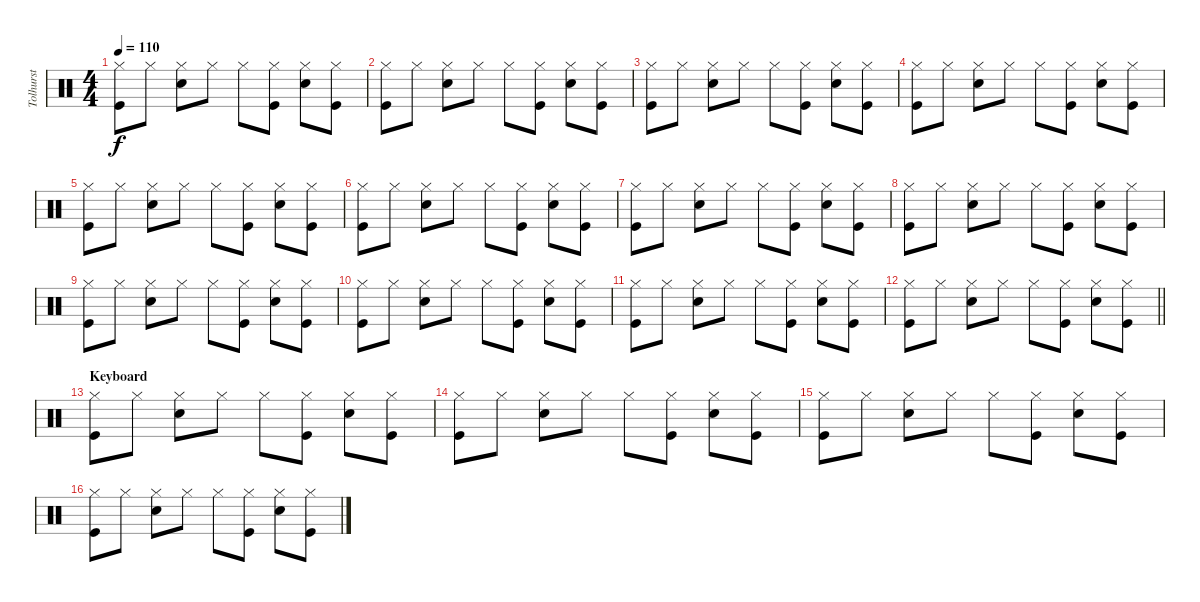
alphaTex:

\track ("Tolhurst" "Tolhurst") {instrument percussion}
\staff {score}
\articulation defaults
\ts (4 4)
\tempo 110
\clef neutral
\ks c
("Hi-Hat (closed)" "Kick (hit)").8{dy f} "Hi-Hat (closed)".8 ("Hi-Hat (closed)" "Electric Snare (hit)").8 "Hi-Hat (closed)".8 "Hi-Hat (closed)".8 ("Hi-Hat (closed)" "Kick (hit)").8 ("Hi-Hat (closed)" "Electric Snare (hit)").8 ("Hi-Hat (closed)" "Kick (hit)").8 |
("Hi-Hat (closed)" "Kick (hit)").8 "Hi-Hat (closed)".8 ("Hi-Hat (closed)" "Electric Snare (hit)").8 "Hi-Hat (closed)".8 "Hi-Hat (closed)".8 ("Hi-Hat (closed)" "Kick (hit)").8 ("Hi-Hat (closed)" "Electric Snare (hit)").8 ("Hi-Hat (closed)" "Kick (hit)").8 |
("Hi-Hat (closed)" "Kick (hit)").8 "Hi-Hat (closed)".8 ("Hi-Hat (closed)" "Electric Snare (hit)").8 "Hi-Hat (closed)".8 "Hi-Hat (closed)".8 ("Hi-Hat (closed)" "Kick (hit)").8 ("Hi-Hat (closed)" "Electric Snare (hit)").8 ("Hi-Hat (closed)" "Kick (hit)").8 |
("Hi-Hat (closed)" "Kick (hit)").8 "Hi-Hat (closed)".8 ("Hi-Hat (closed)" "Electric Snare (hit)").8 "Hi-Hat (closed)".8 "Hi-Hat (closed)".8 ("Hi-Hat (closed)" "Kick (hit)").8 ("Hi-Hat (closed)" "Electric Snare (hit)").8 ("Hi-Hat (closed)" "Kick (hit)").8 |
("Hi-Hat (closed)" "Kick (hit)").8 "Hi-Hat (closed)".8 ("Hi-Hat (closed)" "Electric Snare (hit)").8 "Hi-Hat (closed)".8 "Hi-Hat (closed)".8 ("Hi-Hat (closed)" "Kick (hit)").8 ("Hi-Hat (closed)" "Electric Snare (hit)").8 ("Hi-Hat (closed)" "Kick (hit)").8 |
("Hi-Hat (closed)" "Kick (hit)").8 "Hi-Hat (closed)".8 ("Hi-Hat (closed)" "Electric Snare (hit)").8 "Hi-Hat (closed)".8 "Hi-Hat (closed)".8 ("Hi-Hat (closed)" "Kick (hit)").8 ("Hi-Hat (closed)" "Electric Snare (hit)").8 ("Hi-Hat (closed)" "Kick (hit)").8 |
("Hi-Hat (closed)" "Kick (hit)").8 "Hi-Hat (closed)".8 ("Hi-Hat (closed)" "Electric Snare (hit)").8 "Hi-Hat (closed)".8 "Hi-Hat (closed)".8 ("Hi-Hat (closed)" "Kick (hit)").8 ("Hi-Hat (closed)" "Electric Snare (hit)").8 ("Hi-Hat (closed)" "Kick (hit)").8 |
("Hi-Hat (closed)" "Kick (hit)").8 "Hi-Hat (closed)".8 ("Hi-Hat (closed)" "Electric Snare (hit)").8 "Hi-Hat (closed)".8 "Hi-Hat (closed)".8 ("Hi-Hat (closed)" "Kick (hit)").8 ("Hi-Hat (closed)" "Electric Snare (hit)").8 ("Hi-Hat (closed)" "Kick (hit)").8 |
("Hi-Hat (closed)" "Kick (hit)").8 "Hi-Hat (closed)".8 ("Hi-Hat (closed)" "Electric Snare (hit)").8 "Hi-Hat (closed)".8 "Hi-Hat (closed)".8 ("Hi-Hat (closed)" "Kick (hit)").8 ("Hi-Hat (closed)" "Electric Snare (hit)").8 ("Hi-Hat (closed)" "Kick (hit)").8 |
("Hi-Hat (closed)" "Kick (hit)").8 "Hi-Hat (closed)".8 ("Hi-Hat (closed)" "Electric Snare (hit)").8 "Hi-Hat (closed)".8 "Hi-Hat (closed)".8 ("Hi-Hat (closed)" "Kick (hit)").8 ("Hi-Hat (closed)" "Electric Snare (hit)").8 ("Hi-Hat (closed)" "Kick (hit)").8 |
("Hi-Hat (closed)" "Kick (hit)").8 "Hi-Hat (closed)".8 ("Hi-Hat (closed)" "Electric Snare (hit)").8 "Hi-Hat (closed)".8 "Hi-Hat (closed)".8 ("Hi-Hat (closed)" "Kick (hit)").8 ("Hi-Hat (closed)" "Electric Snare (hit)").8 ("Hi-Hat (closed)" "Kick (hit)").8 |
\barLineRight lightlight
("Hi-Hat (closed)" "Kick (hit)").8 "Hi-Hat (closed)".8 ("Hi-Hat (closed)" "Electric Snare (hit)").8 "Hi-Hat (closed)".8 "Hi-Hat (closed)".8 ("Hi-Hat (closed)" "Kick (hit)").8 ("Hi-Hat (closed)" "Electric Snare (hit)").8 ("Hi-Hat (closed)" "Kick (hit)").8 |
\section ("" "Keyboard")
("Hi-Hat (closed)" "Kick (hit)").8 "Hi-Hat (closed)".8 ("Hi-Hat (closed)" "Electric Snare (hit)").8 "Hi-Hat (closed)".8 "Hi-Hat (closed)".8 ("Hi-Hat (closed)" "Kick (hit)").8 ("Hi-Hat (closed)" "Electric Snare (hit)").8 ("Hi-Hat (closed)" "Kick (hit)").8 |
("Hi-Hat (closed)" "Kick (hit)").8 "Hi-Hat (closed)".8 ("Hi-Hat (closed)" "Electric Snare (hit)").8 "Hi-Hat (closed)".8 "Hi-Hat (closed)".8 ("Hi-Hat (closed)" "Kick (hit)").8 ("Hi-Hat (closed)" "Electric Snare (hit)").8 ("Hi-Hat (closed)" "Kick (hit)").8 |
("Hi-Hat (closed)" "Kick (hit)").8 "Hi-Hat (closed)".8 ("Hi-Hat (closed)" "Electric Snare (hit)").8 "Hi-Hat (closed)".8 "Hi-Hat (closed)".8 ("Hi-Hat (closed)" "Kick (hit)").8 ("Hi-Hat (closed)" "Electric Snare (hit)").8 ("Hi-Hat (closed)" "Kick (hit)").8 |
("Hi-Hat (closed)" "Kick (hit)").8 "Hi-Hat (closed)".8 ("Hi-Hat (closed)" "Electric Snare (hit)").8 "Hi-Hat (closed)".8 "Hi-Hat (closed)".8 ("Hi-Hat (closed)" "Kick (hit)").8 ("Hi-Hat (closed)" "Electric Snare (hit)").8 ("Hi-Hat (closed)" "Kick (hit)").8
